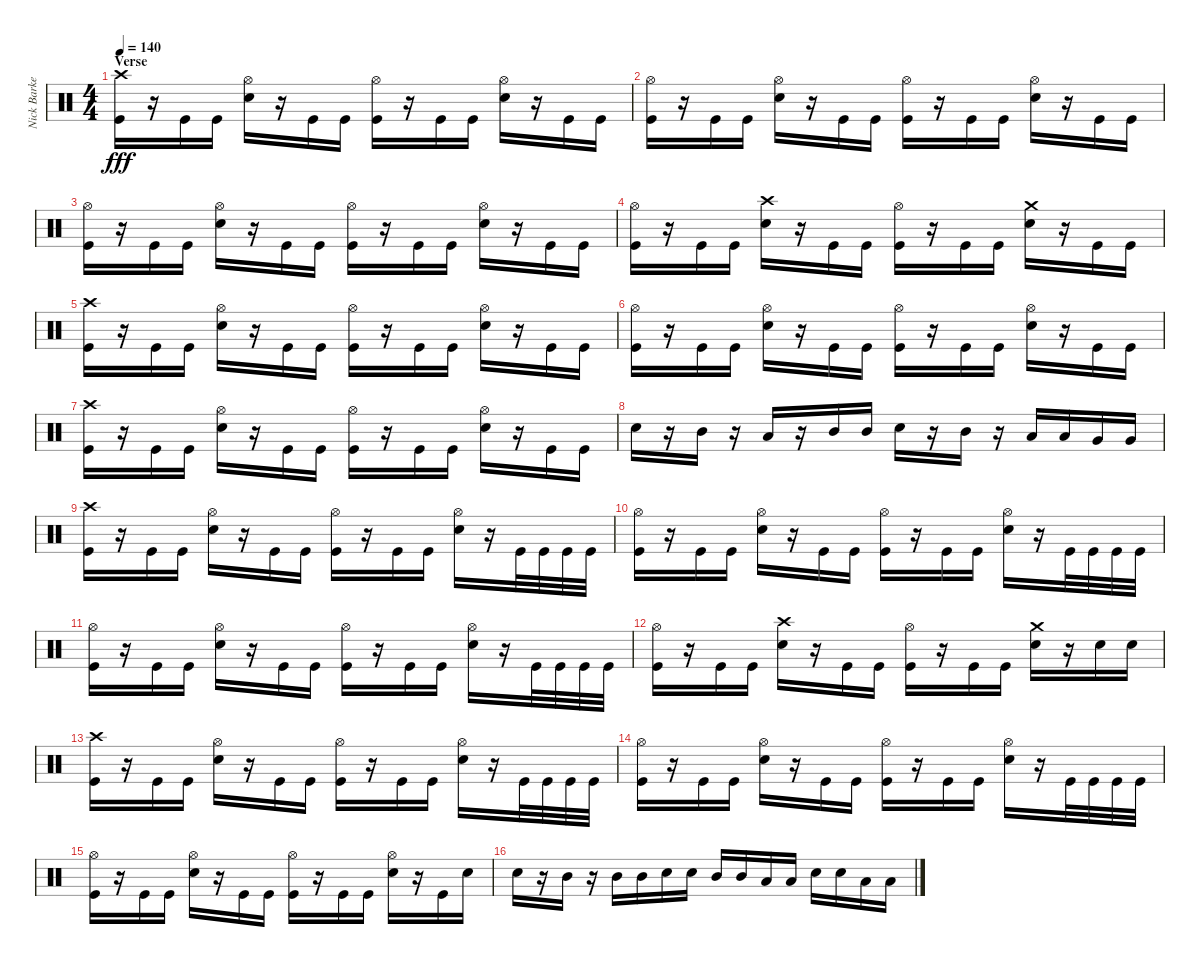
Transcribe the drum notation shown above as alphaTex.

\track ("Nick Barker" "Nick Barke") {instrument percussion}
\staff {score}
\articulation defaults
\ts (4 4)
\section ("" "Verse")
\tempo 140
\clef neutral
\ks c
("Crash high (hit)" "Kick (hit)").16{dy fff} r.16 "Kick (hit)".16 "Kick (hit)".16 ("Hi-Hat (open)" "Electric Snare (hit)").16 r.16 "Kick (hit)".16 "Kick (hit)".16 ("Hi-Hat (open)" "Kick (hit)").16 r.16 "Kick (hit)".16 "Kick (hit)".16 ("Hi-Hat (open)" "Electric Snare (hit)").16 r.16 "Kick (hit)".16 "Kick (hit)".16 |
("Hi-Hat (open)" "Kick (hit)").16 r.16 "Kick (hit)".16 "Kick (hit)".16 ("Hi-Hat (open)" "Electric Snare (hit)").16 r.16 "Kick (hit)".16 "Kick (hit)".16 ("Hi-Hat (open)" "Kick (hit)").16 r.16 "Kick (hit)".16 "Kick (hit)".16 ("Hi-Hat (open)" "Electric Snare (hit)").16 r.16 "Kick (hit)".16 "Kick (hit)".16 |
("Hi-Hat (open)" "Kick (hit)").16 r.16 "Kick (hit)".16 "Kick (hit)".16 ("Hi-Hat (open)" "Electric Snare (hit)").16 r.16 "Kick (hit)".16 "Kick (hit)".16 ("Hi-Hat (open)" "Kick (hit)").16 r.16 "Kick (hit)".16 "Kick (hit)".16 ("Hi-Hat (open)" "Electric Snare (hit)").16 r.16 "Kick (hit)".16 "Kick (hit)".16 |
("Hi-Hat (open)" "Kick (hit)").16 r.16 "Kick (hit)".16 "Kick (hit)".16 ("Crash high (hit)" "Electric Snare (hit)").16 r.16 "Kick (hit)".16 "Kick (hit)".16 ("Hi-Hat (open)" "Kick (hit)").16 r.16 "Kick (hit)".16 "Kick (hit)".16 ("Crash medium (hit)" "Electric Snare (hit)").16 r.16 "Kick (hit)".16 "Kick (hit)".16 |
("Crash high (hit)" "Kick (hit)").16 r.16 "Kick (hit)".16 "Kick (hit)".16 ("Hi-Hat (open)" "Electric Snare (hit)").16 r.16 "Kick (hit)".16 "Kick (hit)".16 ("Hi-Hat (open)" "Kick (hit)").16 r.16 "Kick (hit)".16 "Kick (hit)".16 ("Hi-Hat (open)" "Electric Snare (hit)").16 r.16 "Kick (hit)".16 "Kick (hit)".16 |
("Hi-Hat (open)" "Kick (hit)").16 r.16 "Kick (hit)".16 "Kick (hit)".16 ("Hi-Hat (open)" "Electric Snare (hit)").16 r.16 "Kick (hit)".16 "Kick (hit)".16 ("Hi-Hat (open)" "Kick (hit)").16 r.16 "Kick (hit)".16 "Kick (hit)".16 ("Hi-Hat (open)" "Electric Snare (hit)").16 r.16 "Kick (hit)".16 "Kick (hit)".16 |
("Crash high (hit)" "Kick (hit)").16 r.16 "Kick (hit)".16 "Kick (hit)".16 ("Hi-Hat (open)" "Electric Snare (hit)").16 r.16 "Kick (hit)".16 "Kick (hit)".16 ("Hi-Hat (open)" "Kick (hit)").16 r.16 "Kick (hit)".16 "Kick (hit)".16 ("Hi-Hat (open)" "Electric Snare (hit)").16 r.16 "Kick (hit)".16 "Kick (hit)".16 |
"Electric Snare (hit)".16 r.16 "Mid Tom (hit)".16 r.16 "Low Tom (hit)".16 r.16 "Mid Tom (hit)".16 "Mid Tom (hit)".16 "Electric Snare (hit)".16 r.16 "Mid Tom (hit)".16 r.16 "Low Tom (hit)".16 "Low Tom (hit)".16 "Very Low Tom (hit)".16 "Very Low Tom (hit)".16 |
("Crash high (hit)" "Kick (hit)").16 r.16 "Kick (hit)".16 "Kick (hit)".16 ("Hi-Hat (open)" "Electric Snare (hit)").16 r.16 "Kick (hit)".16 "Kick (hit)".16 ("Hi-Hat (open)" "Kick (hit)").16 r.16 "Kick (hit)".16 "Kick (hit)".16 ("Hi-Hat (open)" "Electric Snare (hit)").16 r.16 "Kick (hit)".32 "Kick (hit)".32 "Kick (hit)".32 "Kick (hit)".32 |
("Hi-Hat (open)" "Kick (hit)").16 r.16 "Kick (hit)".16 "Kick (hit)".16 ("Hi-Hat (open)" "Electric Snare (hit)").16 r.16 "Kick (hit)".16 "Kick (hit)".16 ("Hi-Hat (open)" "Kick (hit)").16 r.16 "Kick (hit)".16 "Kick (hit)".16 ("Hi-Hat (open)" "Electric Snare (hit)").16 r.16 "Kick (hit)".32 "Kick (hit)".32 "Kick (hit)".32 "Kick (hit)".32 |
("Hi-Hat (open)" "Kick (hit)").16 r.16 "Kick (hit)".16 "Kick (hit)".16 ("Hi-Hat (open)" "Electric Snare (hit)").16 r.16 "Kick (hit)".16 "Kick (hit)".16 ("Hi-Hat (open)" "Kick (hit)").16 r.16 "Kick (hit)".16 "Kick (hit)".16 ("Hi-Hat (open)" "Electric Snare (hit)").16 r.16 "Kick (hit)".32 "Kick (hit)".32 "Kick (hit)".32 "Kick (hit)".32 |
("Hi-Hat (open)" "Kick (hit)").16 r.16 "Kick (hit)".16 "Kick (hit)".16 ("Crash high (hit)" "Electric Snare (hit)").16 r.16 "Kick (hit)".16 "Kick (hit)".16 ("Hi-Hat (open)" "Kick (hit)").16 r.16 "Kick (hit)".16 "Kick (hit)".16 ("Crash medium (hit)" "Electric Snare (hit)").16 r.16 "Electric Snare (hit)".16 "Electric Snare (hit)".16 |
("Crash high (hit)" "Kick (hit)").16 r.16 "Kick (hit)".16 "Kick (hit)".16 ("Hi-Hat (open)" "Electric Snare (hit)").16 r.16 "Kick (hit)".16 "Kick (hit)".16 ("Hi-Hat (open)" "Kick (hit)").16 r.16 "Kick (hit)".16 "Kick (hit)".16 ("Hi-Hat (open)" "Electric Snare (hit)").16 r.16 "Kick (hit)".32 "Kick (hit)".32 "Kick (hit)".32 "Kick (hit)".32 |
("Hi-Hat (open)" "Kick (hit)").16 r.16 "Kick (hit)".16 "Kick (hit)".16 ("Hi-Hat (open)" "Electric Snare (hit)").16 r.16 "Kick (hit)".16 "Kick (hit)".16 ("Hi-Hat (open)" "Kick (hit)").16 r.16 "Kick (hit)".16 "Kick (hit)".16 ("Hi-Hat (open)" "Electric Snare (hit)").16 r.16 "Kick (hit)".32 "Kick (hit)".32 "Kick (hit)".32 "Kick (hit)".32 |
("Hi-Hat (open)" "Kick (hit)").16 r.16 "Kick (hit)".16 "Kick (hit)".16 ("Hi-Hat (open)" "Electric Snare (hit)").16 r.16 "Kick (hit)".16 "Kick (hit)".16 ("Hi-Hat (open)" "Kick (hit)").16 r.16 "Kick (hit)".16 "Kick (hit)".16 ("Hi-Hat (open)" "Electric Snare (hit)").16 r.16 "Kick (hit)".16 "Electric Snare (hit)".16 |
"Electric Snare (hit)".16 r.16 "Mid Tom (hit)".16 r.16 "Mid Tom (hit)".16 "Mid Tom (hit)".16 "Electric Snare (hit)".16 "Electric Snare (hit)".16 "Mid Tom (hit)".16 "Mid Tom (hit)".16 "Low Tom (hit)".16 "Low Tom (hit)".16 "Electric Snare (hit)".16 "Electric Snare (hit)".16 "Low Tom (hit)".16 "Low Tom (hit)".16
